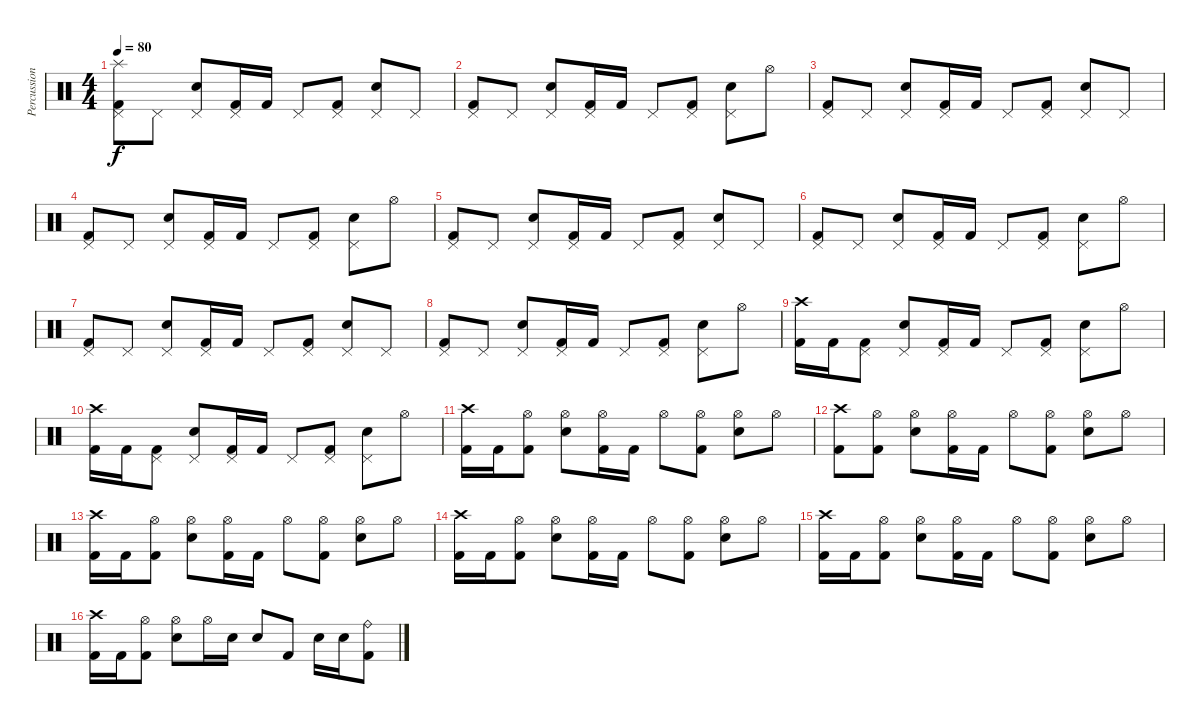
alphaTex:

\track ("Percussion" "Percussion") {instrument percussion}
\staff {score}
\articulation defaults
\ts (4 4)
\tempo 80
\clef neutral
\ks c
("Pedal Hi-Hat (hit)" "Kick (hit) 2" "Splash (hit)").8{dy f} "Pedal Hi-Hat (hit)".8 ("Electric Snare (hit)" "Pedal Hi-Hat (hit)").8 ("Pedal Hi-Hat (hit)" "Kick (hit) 2").16 "Kick (hit) 2".16 "Pedal Hi-Hat (hit)".8 ("Pedal Hi-Hat (hit)" "Kick (hit) 2").8 ("Electric Snare (hit)" "Pedal Hi-Hat (hit)").8 "Pedal Hi-Hat (hit)".8 |
("Pedal Hi-Hat (hit)" "Kick (hit) 2").8 "Pedal Hi-Hat (hit)".8 ("Electric Snare (hit)" "Pedal Hi-Hat (hit)").8 ("Pedal Hi-Hat (hit)" "Kick (hit) 2").16 "Kick (hit) 2".16 "Pedal Hi-Hat (hit)".8 ("Pedal Hi-Hat (hit)" "Kick (hit) 2").8 ("Electric Snare (hit)" "Pedal Hi-Hat (hit)").8 "Hi-Hat (open)".8 |
("Pedal Hi-Hat (hit)" "Kick (hit) 2").8 "Pedal Hi-Hat (hit)".8 ("Electric Snare (hit)" "Pedal Hi-Hat (hit)").8 ("Pedal Hi-Hat (hit)" "Kick (hit) 2").16 "Kick (hit) 2".16 "Pedal Hi-Hat (hit)".8 ("Pedal Hi-Hat (hit)" "Kick (hit) 2").8 ("Electric Snare (hit)" "Pedal Hi-Hat (hit)").8 "Pedal Hi-Hat (hit)".8 |
("Pedal Hi-Hat (hit)" "Kick (hit) 2").8 "Pedal Hi-Hat (hit)".8 ("Electric Snare (hit)" "Pedal Hi-Hat (hit)").8 ("Pedal Hi-Hat (hit)" "Kick (hit) 2").16 "Kick (hit) 2".16 "Pedal Hi-Hat (hit)".8 ("Pedal Hi-Hat (hit)" "Kick (hit) 2").8 ("Electric Snare (hit)" "Pedal Hi-Hat (hit)").8 "Hi-Hat (open)".8 |
("Pedal Hi-Hat (hit)" "Kick (hit) 2").8 "Pedal Hi-Hat (hit)".8 ("Electric Snare (hit)" "Pedal Hi-Hat (hit)").8 ("Pedal Hi-Hat (hit)" "Kick (hit) 2").16 "Kick (hit) 2".16 "Pedal Hi-Hat (hit)".8 ("Pedal Hi-Hat (hit)" "Kick (hit) 2").8 ("Electric Snare (hit)" "Pedal Hi-Hat (hit)").8 "Pedal Hi-Hat (hit)".8 |
("Pedal Hi-Hat (hit)" "Kick (hit) 2").8 "Pedal Hi-Hat (hit)".8 ("Electric Snare (hit)" "Pedal Hi-Hat (hit)").8 ("Pedal Hi-Hat (hit)" "Kick (hit) 2").16 "Kick (hit) 2".16 "Pedal Hi-Hat (hit)".8 ("Pedal Hi-Hat (hit)" "Kick (hit) 2").8 ("Electric Snare (hit)" "Pedal Hi-Hat (hit)").8 "Hi-Hat (open)".8 |
("Pedal Hi-Hat (hit)" "Kick (hit) 2").8 "Pedal Hi-Hat (hit)".8 ("Electric Snare (hit)" "Pedal Hi-Hat (hit)").8 ("Pedal Hi-Hat (hit)" "Kick (hit) 2").16 "Kick (hit) 2".16 "Pedal Hi-Hat (hit)".8 ("Pedal Hi-Hat (hit)" "Kick (hit) 2").8 ("Electric Snare (hit)" "Pedal Hi-Hat (hit)").8 "Pedal Hi-Hat (hit)".8 |
("Pedal Hi-Hat (hit)" "Kick (hit) 2").8 "Pedal Hi-Hat (hit)".8 ("Electric Snare (hit)" "Pedal Hi-Hat (hit)").8 ("Pedal Hi-Hat (hit)" "Kick (hit) 2").16 "Kick (hit) 2".16 "Pedal Hi-Hat (hit)".8 ("Pedal Hi-Hat (hit)" "Kick (hit) 2").8 ("Electric Snare (hit)" "Pedal Hi-Hat (hit)").8 "Hi-Hat (open)".8 |
("Kick (hit) 2" "Crash high (hit)").16 "Kick (hit) 2".16 ("Kick (hit) 2" "Pedal Hi-Hat (hit)").8 ("Electric Snare (hit)" "Pedal Hi-Hat (hit)").8 ("Pedal Hi-Hat (hit)" "Kick (hit) 2").16 "Kick (hit) 2".16 "Pedal Hi-Hat (hit)".8 ("Pedal Hi-Hat (hit)" "Kick (hit) 2").8 ("Electric Snare (hit)" "Pedal Hi-Hat (hit)").8 "Hi-Hat (open)".8 |
("Kick (hit) 2" "Crash high (hit)").16 "Kick (hit) 2".16 ("Kick (hit) 2" "Pedal Hi-Hat (hit)").8 ("Electric Snare (hit)" "Pedal Hi-Hat (hit)").8 ("Pedal Hi-Hat (hit)" "Kick (hit) 2").16 "Kick (hit) 2".16 "Pedal Hi-Hat (hit)".8 ("Pedal Hi-Hat (hit)" "Kick (hit) 2").8 ("Electric Snare (hit)" "Pedal Hi-Hat (hit)").8 "Hi-Hat (open)".8 |
("Kick (hit) 2" "Crash high (hit)").16 "Kick (hit) 2".16 ("Kick (hit) 2" "Hi-Hat (open)").8 ("Electric Snare (hit)" "Hi-Hat (open)").8 ("Hi-Hat (open)" "Kick (hit) 2").16 "Kick (hit) 2".16 "Hi-Hat (open)".8 ("Hi-Hat (open)" "Kick (hit) 2").8 ("Electric Snare (hit)" "Hi-Hat (open)").8 "Hi-Hat (open)".8 |
("Kick (hit) 2" "Crash high (hit)").8 ("Kick (hit) 2" "Hi-Hat (open)").8 ("Electric Snare (hit)" "Hi-Hat (open)").8 ("Hi-Hat (open)" "Kick (hit) 2").16 "Kick (hit) 2".16 "Hi-Hat (open)".8 ("Hi-Hat (open)" "Kick (hit) 2").8 ("Electric Snare (hit)" "Hi-Hat (open)").8 "Hi-Hat (open)".8 |
("Kick (hit) 2" "Crash high (hit)").16 "Kick (hit) 2".16 ("Kick (hit) 2" "Hi-Hat (open)").8 ("Electric Snare (hit)" "Hi-Hat (open)").8 ("Hi-Hat (open)" "Kick (hit) 2").16 "Kick (hit) 2".16 "Hi-Hat (open)".8 ("Hi-Hat (open)" "Kick (hit) 2").8 ("Electric Snare (hit)" "Hi-Hat (open)").8 "Hi-Hat (open)".8 |
("Kick (hit) 2" "Crash high (hit)").16 "Kick (hit) 2".16 ("Kick (hit) 2" "Hi-Hat (open)").8 ("Electric Snare (hit)" "Hi-Hat (open)").8 ("Hi-Hat (open)" "Kick (hit) 2").16 "Kick (hit) 2".16 "Hi-Hat (open)".8 ("Hi-Hat (open)" "Kick (hit) 2").8 ("Electric Snare (hit)" "Hi-Hat (open)").8 "Hi-Hat (open)".8 |
("Kick (hit) 2" "Crash high (hit)").16 "Kick (hit) 2".16 ("Kick (hit) 2" "Hi-Hat (open)").8 ("Electric Snare (hit)" "Hi-Hat (open)").8 ("Hi-Hat (open)" "Kick (hit) 2").16 "Kick (hit) 2".16 "Hi-Hat (open)".8 ("Hi-Hat (open)" "Kick (hit) 2").8 ("Electric Snare (hit)" "Hi-Hat (open)").8 "Hi-Hat (open)".8 |
("Kick (hit) 2" "Crash high (hit)").16 "Kick (hit) 2".16 ("Kick (hit) 2" "Hi-Hat (open)").8 ("Electric Snare (hit)" "Hi-Hat (open)").8 "Hi-Hat (open)".16 "Electric Snare (hit)".16 "Electric Snare (hit)".8 "Kick (hit) 2".8 "Electric Snare (hit)".16 "Electric Snare (hit)".16 ("Kick (hit) 2" "Ride (bell)").8
